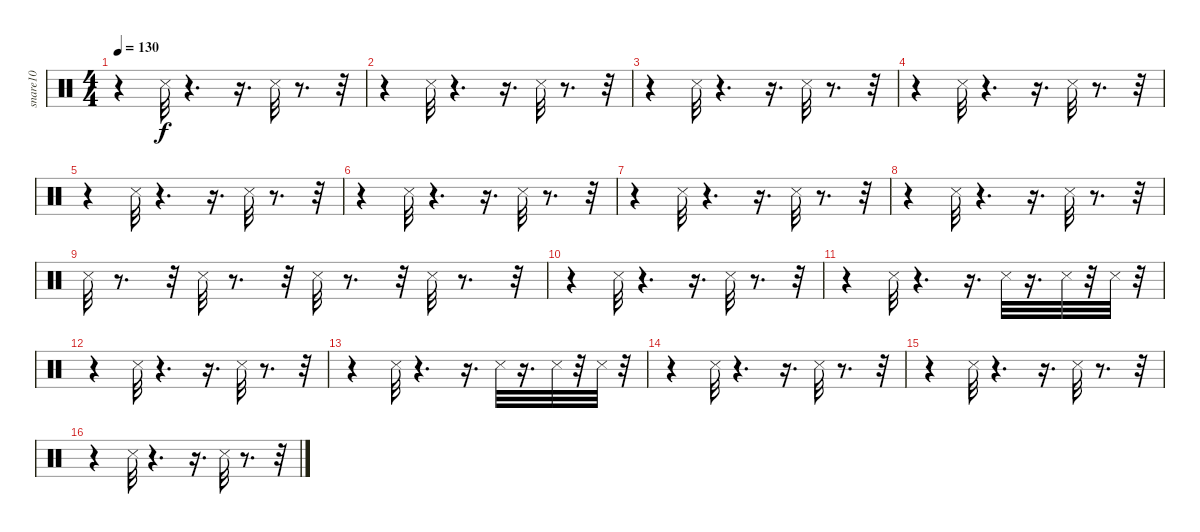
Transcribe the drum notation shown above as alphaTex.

\track ("snare10             " "snare10   ") {instrument percussion}
\staff {score}
\articulation defaults
\ts (4 4)
\tempo 130
\clef neutral
\ks c
r.4{dy f} "Metronome (hit)".32 r.4{d} r.16{d} "Metronome (hit)".32 r.8{d} r.32 |
r.4 "Metronome (hit)".32 r.4{d} r.16{d} "Metronome (hit)".32 r.8{d} r.32 |
r.4 "Metronome (hit)".32 r.4{d} r.16{d} "Metronome (hit)".32 r.8{d} r.32 |
r.4 "Metronome (hit)".32 r.4{d} r.16{d} "Metronome (hit)".32 r.8{d} r.32 |
r.4 "Metronome (hit)".32 r.4{d} r.16{d} "Metronome (hit)".32 r.8{d} r.32 |
r.4 "Metronome (hit)".32 r.4{d} r.16{d} "Metronome (hit)".32 r.8{d} r.32 |
r.4 "Metronome (hit)".32 r.4{d} r.16{d} "Metronome (hit)".32 r.8{d} r.32 |
r.4 "Metronome (hit)".32 r.4{d} r.16{d} "Metronome (hit)".32 r.8{d} r.32 |
"Metronome (hit)".32 r.8{d} r.32 "Metronome (hit)".32 r.8{d} r.32 "Metronome (hit)".32 r.8{d} r.32 "Metronome (hit)".32 r.8{d} r.32 |
r.4 "Metronome (hit)".32 r.4{d} r.16{d} "Metronome (hit)".32 r.8{d} r.32 |
r.4 "Metronome (hit)".32 r.4{d} r.16{d} "Metronome (hit)".32 r.16{d} "Metronome (hit)".32 r.32 "Metronome (hit)".32 r.32 |
r.4 "Metronome (hit)".32 r.4{d} r.16{d} "Metronome (hit)".32 r.8{d} r.32 |
r.4 "Metronome (hit)".32 r.4{d} r.16{d} "Metronome (hit)".32 r.16{d} "Metronome (hit)".32 r.32 "Metronome (hit)".32 r.32 |
r.4 "Metronome (hit)".32 r.4{d} r.16{d} "Metronome (hit)".32 r.8{d} r.32 |
r.4 "Metronome (hit)".32 r.4{d} r.16{d} "Metronome (hit)".32 r.8{d} r.32 |
r.4 "Metronome (hit)".32 r.4{d} r.16{d} "Metronome (hit)".32 r.8{d} r.32
